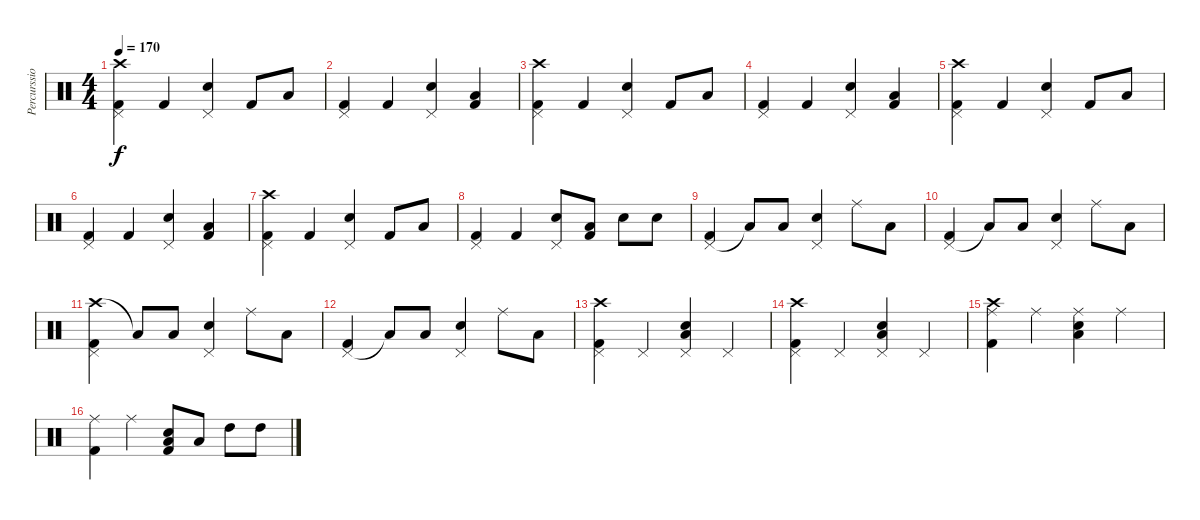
\track ("Percurssion" "Percurssio") {instrument percussion}
\staff {score}
\articulation defaults
\ts (4 4)
\tempo 170
\clef neutral
\ks c
("Crash high (hit)" "Pedal Hi-Hat (hit)" "Kick (hit) 2").4{dy f} "Kick (hit) 2".4 ("Pedal Hi-Hat (hit)" "Electric Snare (hit)").4 "Kick (hit) 2".8 "Low Tom (hit)".8 |
("Pedal Hi-Hat (hit)" "Kick (hit) 2").4 "Kick (hit) 2".4 ("Pedal Hi-Hat (hit)" "Electric Snare (hit)").4 ("Low Tom (hit)" "Kick (hit) 2").4{bu 240} |
("Crash high (hit)" "Pedal Hi-Hat (hit)" "Kick (hit) 2").4 "Kick (hit) 2".4 ("Pedal Hi-Hat (hit)" "Electric Snare (hit)").4 "Kick (hit) 2".8 "Low Tom (hit)".8 |
("Pedal Hi-Hat (hit)" "Kick (hit) 2").4 "Kick (hit) 2".4 ("Pedal Hi-Hat (hit)" "Electric Snare (hit)").4 ("Low Tom (hit)" "Kick (hit) 2").4{bu 240} |
("Crash high (hit)" "Pedal Hi-Hat (hit)" "Kick (hit) 2").4 "Kick (hit) 2".4 ("Pedal Hi-Hat (hit)" "Electric Snare (hit)").4 "Kick (hit) 2".8 "Low Tom (hit)".8 |
("Pedal Hi-Hat (hit)" "Kick (hit) 2").4 "Kick (hit) 2".4 ("Pedal Hi-Hat (hit)" "Electric Snare (hit)").4 ("Low Tom (hit)" "Kick (hit) 2").4{bu 240} |
("Crash high (hit)" "Pedal Hi-Hat (hit)" "Kick (hit) 2").4 "Kick (hit) 2".4 ("Pedal Hi-Hat (hit)" "Electric Snare (hit)").4 "Kick (hit) 2".8 "Low Tom (hit)".8 |
("Pedal Hi-Hat (hit)" "Kick (hit) 2").4 "Kick (hit) 2".4 ("Pedal Hi-Hat (hit)" "Electric Snare (hit)").8 ("Low Tom (hit)" "Kick (hit) 2").8{bu 240} "Electric Snare (hit)".8 "Electric Snare (hit)".8 |
("Pedal Hi-Hat (hit)" "Kick (hit) 2").4 "Low Tom (hit)"{t}.8 "Low Tom (hit)".8 ("Pedal Hi-Hat (hit)" "Electric Snare (hit)").4 "Ride (middle)".8 "Low Tom (hit)".8 |
("Pedal Hi-Hat (hit)" "Kick (hit) 2").4 "Low Tom (hit)"{t}.8 "Low Tom (hit)".8 ("Pedal Hi-Hat (hit)" "Electric Snare (hit)").4 "Ride (middle)".8 "Low Tom (hit)".8 |
("Crash high (hit)" "Pedal Hi-Hat (hit)" "Kick (hit) 2").4 "Low Tom (hit)"{t}.8 "Low Tom (hit)".8 ("Pedal Hi-Hat (hit)" "Electric Snare (hit)").4 "Ride (middle)".8 "Low Tom (hit)".8 |
("Pedal Hi-Hat (hit)" "Kick (hit) 2").4 "Low Tom (hit)"{t}.8 "Low Tom (hit)".8 ("Pedal Hi-Hat (hit)" "Electric Snare (hit)").4 "Ride (middle)".8 "Low Tom (hit)".8 |
("Crash high (hit)" "Pedal Hi-Hat (hit)" "Kick (hit) 2").4 "Pedal Hi-Hat (hit)".4 ("Low Tom (hit)" "Pedal Hi-Hat (hit)" "Electric Snare (hit)").4 "Pedal Hi-Hat (hit)".4 |
("Crash high (hit)" "Pedal Hi-Hat (hit)" "Kick (hit) 2").4 "Pedal Hi-Hat (hit)".4 ("Low Tom (hit)" "Pedal Hi-Hat (hit)" "Electric Snare (hit)").4 "Pedal Hi-Hat (hit)".4 |
("Crash high (hit)" "Ride (middle)" "Kick (hit) 2").4 "Ride (middle)".4 ("Low Tom (hit)" "Ride (middle)" "Electric Snare (hit)").4 "Ride (middle)".4 |
("Ride (middle)" "Kick (hit) 2").4 "Ride (middle)".4 ("Low Tom (hit)" "Electric Snare (hit)" "Kick (hit) 2").8{bu 480} "Low Tom (hit)".8 "High Tom (hit)".8 "High Tom (hit)".8
